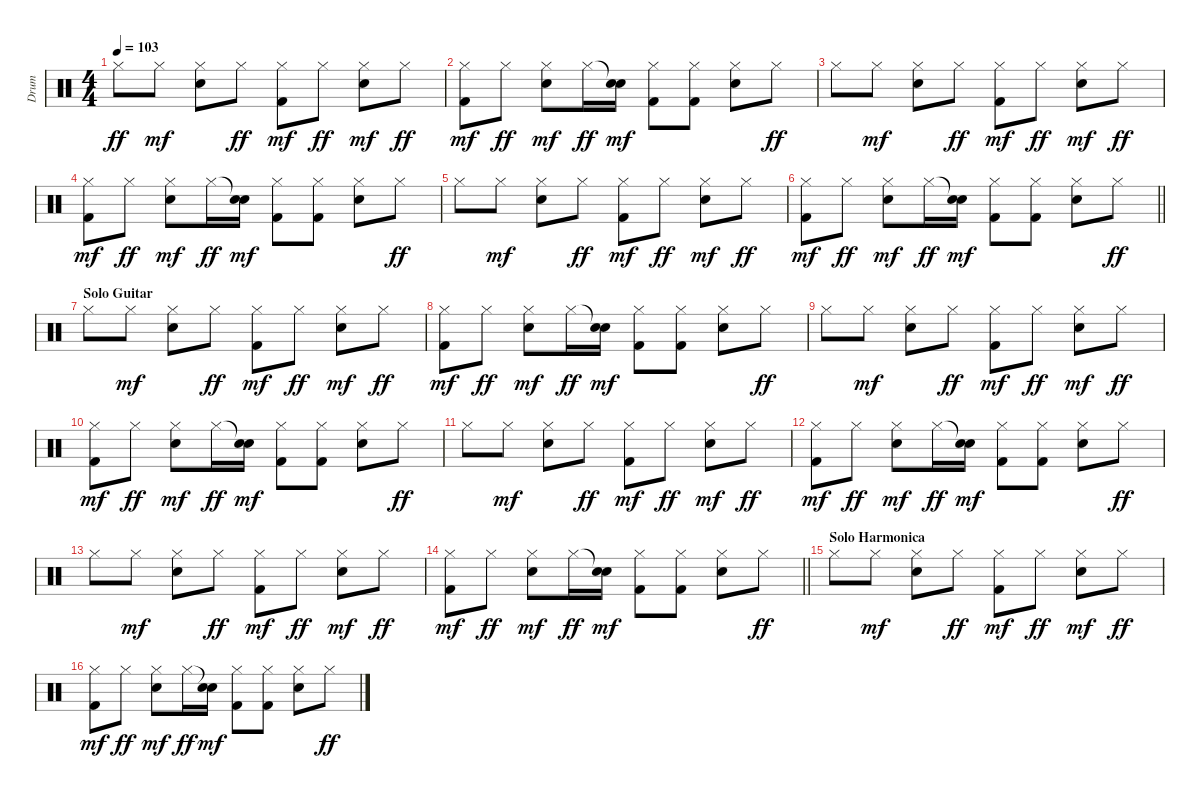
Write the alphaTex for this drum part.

\track ("Drum" "Drum") {instrument percussion}
\staff {score}
\articulation defaults
\ts (4 4)
\tempo 103
\clef neutral
\ks c "Hi-Hat (closed)".8{dy ff} "Hi-Hat (closed)".8{dy mf}
("Hi-Hat (closed)" "Electric Snare (hit)").8 "Hi-Hat (closed)".8{dy ff} ("Hi-Hat (closed)" "Kick (hit) 2").8{dy mf} "Hi-Hat (closed)".8{dy ff} ("Hi-Hat (closed)" "Electric Snare (hit)").8{dy mf} "Hi-Hat (closed)".8{dy ff} |
("Hi-Hat (closed)" "Kick (hit) 2").8{dy mf} "Hi-Hat (closed)".8{dy ff} ("Hi-Hat (closed)" "Electric Snare (hit)").8{dy mf} "Hi-Hat (closed)".16{dy ff} ("Snare (hit)"{t} "Electric Snare (hit)").16{dy mf} ("Hi-Hat (closed)" "Kick (hit) 2").8 ("Hi-Hat (closed)" "Kick (hit) 2").8 ("Hi-Hat (closed)" "Electric Snare (hit)").8 "Hi-Hat (closed)".8{dy ff} |
"Hi-Hat (closed)".8 "Hi-Hat (closed)".8{dy mf} ("Hi-Hat (closed)" "Electric Snare (hit)").8 "Hi-Hat (closed)".8{dy ff} ("Hi-Hat (closed)" "Kick (hit) 2").8{dy mf} "Hi-Hat (closed)".8{dy ff} ("Hi-Hat (closed)" "Electric Snare (hit)").8{dy mf} "Hi-Hat (closed)".8{dy ff} |
("Hi-Hat (closed)" "Kick (hit) 2").8{dy mf} "Hi-Hat (closed)".8{dy ff} ("Hi-Hat (closed)" "Electric Snare (hit)").8{dy mf} "Hi-Hat (closed)".16{dy ff} ("Snare (hit)"{t} "Electric Snare (hit)").16{dy mf} ("Hi-Hat (closed)" "Kick (hit) 2").8 ("Hi-Hat (closed)" "Kick (hit) 2").8 ("Hi-Hat (closed)" "Electric Snare (hit)").8 "Hi-Hat (closed)".8{dy ff} |
"Hi-Hat (closed)".8 "Hi-Hat (closed)".8{dy mf} ("Hi-Hat (closed)" "Electric Snare (hit)").8 "Hi-Hat (closed)".8{dy ff} ("Hi-Hat (closed)" "Kick (hit) 2").8{dy mf} "Hi-Hat (closed)".8{dy ff} ("Hi-Hat (closed)" "Electric Snare (hit)").8{dy mf} "Hi-Hat (closed)".8{dy ff} |
\barLineRight lightlight
("Hi-Hat (closed)" "Kick (hit) 2").8{dy mf} "Hi-Hat (closed)".8{dy ff} ("Hi-Hat (closed)" "Electric Snare (hit)").8{dy mf} "Hi-Hat (closed)".16{dy ff} ("Snare (hit)"{t} "Electric Snare (hit)").16{dy mf} ("Hi-Hat (closed)" "Kick (hit) 2").8 ("Hi-Hat (closed)" "Kick (hit) 2").8 ("Hi-Hat (closed)" "Electric Snare (hit)").8 "Hi-Hat (closed)".8{dy ff} |
\section ("" "Solo Guitar")
"Hi-Hat (closed)".8 "Hi-Hat (closed)".8{dy mf} ("Hi-Hat (closed)" "Electric Snare (hit)").8 "Hi-Hat (closed)".8{dy ff} ("Hi-Hat (closed)" "Kick (hit) 2").8{dy mf} "Hi-Hat (closed)".8{dy ff} ("Hi-Hat (closed)" "Electric Snare (hit)").8{dy mf} "Hi-Hat (closed)".8{dy ff} |
("Hi-Hat (closed)" "Kick (hit) 2").8{dy mf} "Hi-Hat (closed)".8{dy ff} ("Hi-Hat (closed)" "Electric Snare (hit)").8{dy mf} "Hi-Hat (closed)".16{dy ff} ("Snare (hit)"{t} "Electric Snare (hit)").16{dy mf} ("Hi-Hat (closed)" "Kick (hit) 2").8 ("Hi-Hat (closed)" "Kick (hit) 2").8 ("Hi-Hat (closed)" "Electric Snare (hit)").8 "Hi-Hat (closed)".8{dy ff} |
"Hi-Hat (closed)".8 "Hi-Hat (closed)".8{dy mf} ("Hi-Hat (closed)" "Electric Snare (hit)").8 "Hi-Hat (closed)".8{dy ff} ("Hi-Hat (closed)" "Kick (hit) 2").8{dy mf} "Hi-Hat (closed)".8{dy ff} ("Hi-Hat (closed)" "Electric Snare (hit)").8{dy mf} "Hi-Hat (closed)".8{dy ff} |
("Hi-Hat (closed)" "Kick (hit) 2").8{dy mf} "Hi-Hat (closed)".8{dy ff} ("Hi-Hat (closed)" "Electric Snare (hit)").8{dy mf} "Hi-Hat (closed)".16{dy ff} ("Snare (hit)"{t} "Electric Snare (hit)").16{dy mf} ("Hi-Hat (closed)" "Kick (hit) 2").8 ("Hi-Hat (closed)" "Kick (hit) 2").8 ("Hi-Hat (closed)" "Electric Snare (hit)").8 "Hi-Hat (closed)".8{dy ff} |
"Hi-Hat (closed)".8 "Hi-Hat (closed)".8{dy mf} ("Hi-Hat (closed)" "Electric Snare (hit)").8 "Hi-Hat (closed)".8{dy ff} ("Hi-Hat (closed)" "Kick (hit) 2").8{dy mf} "Hi-Hat (closed)".8{dy ff} ("Hi-Hat (closed)" "Electric Snare (hit)").8{dy mf} "Hi-Hat (closed)".8{dy ff} |
("Hi-Hat (closed)" "Kick (hit) 2").8{dy mf} "Hi-Hat (closed)".8{dy ff} ("Hi-Hat (closed)" "Electric Snare (hit)").8{dy mf} "Hi-Hat (closed)".16{dy ff} ("Snare (hit)"{t} "Electric Snare (hit)").16{dy mf} ("Hi-Hat (closed)" "Kick (hit) 2").8 ("Hi-Hat (closed)" "Kick (hit) 2").8 ("Hi-Hat (closed)" "Electric Snare (hit)").8 "Hi-Hat (closed)".8{dy ff} |
"Hi-Hat (closed)".8 "Hi-Hat (closed)".8{dy mf} ("Hi-Hat (closed)" "Electric Snare (hit)").8 "Hi-Hat (closed)".8{dy ff} ("Hi-Hat (closed)" "Kick (hit) 2").8{dy mf} "Hi-Hat (closed)".8{dy ff} ("Hi-Hat (closed)" "Electric Snare (hit)").8{dy mf} "Hi-Hat (closed)".8{dy ff} |
\barLineRight lightlight
("Hi-Hat (closed)" "Kick (hit) 2").8{dy mf} "Hi-Hat (closed)".8{dy ff} ("Hi-Hat (closed)" "Electric Snare (hit)").8{dy mf} "Hi-Hat (closed)".16{dy ff} ("Snare (hit)"{t} "Electric Snare (hit)").16{dy mf} ("Hi-Hat (closed)" "Kick (hit) 2").8 ("Hi-Hat (closed)" "Kick (hit) 2").8 ("Hi-Hat (closed)" "Electric Snare (hit)").8 "Hi-Hat (closed)".8{dy ff} |
\section ("" "Solo Harmonica")
"Hi-Hat (closed)".8 "Hi-Hat (closed)".8{dy mf} ("Hi-Hat (closed)" "Electric Snare (hit)").8 "Hi-Hat (closed)".8{dy ff} ("Hi-Hat (closed)" "Kick (hit) 2").8{dy mf} "Hi-Hat (closed)".8{dy ff} ("Hi-Hat (closed)" "Electric Snare (hit)").8{dy mf} "Hi-Hat (closed)".8{dy ff} |
("Hi-Hat (closed)" "Kick (hit) 2").8{dy mf} "Hi-Hat (closed)".8{dy ff} ("Hi-Hat (closed)" "Electric Snare (hit)").8{dy mf} "Hi-Hat (closed)".16{dy ff} ("Snare (hit)"{t} "Electric Snare (hit)").16{dy mf} ("Hi-Hat (closed)" "Kick (hit) 2").8 ("Hi-Hat (closed)" "Kick (hit) 2").8 ("Hi-Hat (closed)" "Electric Snare (hit)").8 "Hi-Hat (closed)".8{dy ff}
